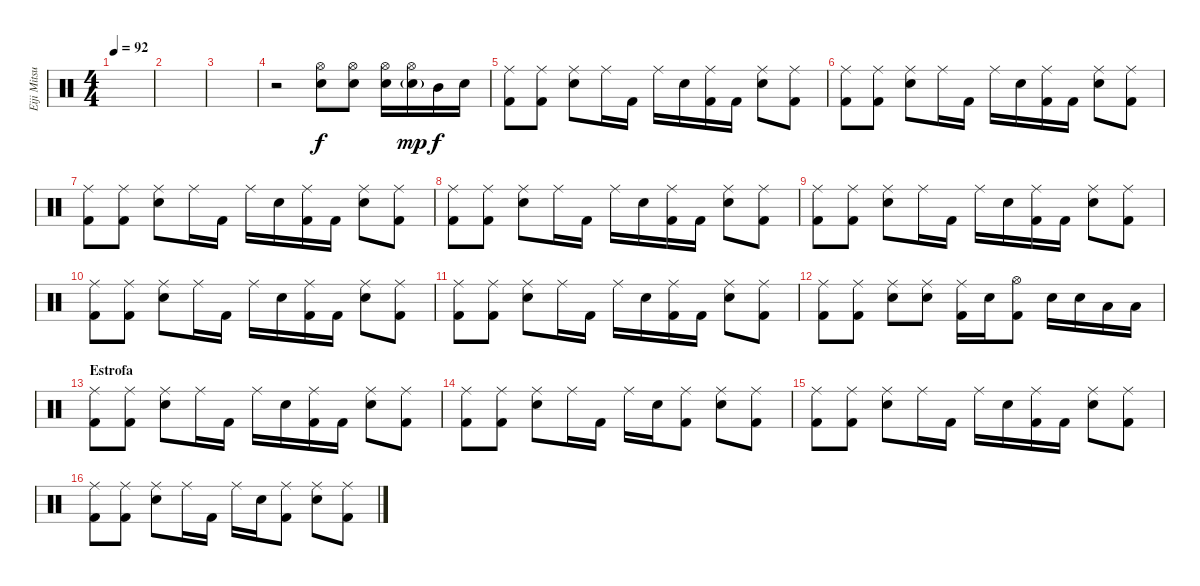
\track ("Eiji Mitsuzono " "Eiji Mitsu") {instrument percussion}
\staff {score}
\articulation defaults
\ts (4 4)
\tempo 92
\clef neutral
\ks c
|
|
|
r.2 ("Hi-Hat (open)" "Snare (hit) 2").8 ("Hi-Hat (open)" "Snare (hit) 2").8 ("Hi-Hat (open)" "Snare (hit) 2").16 ("Hi-Hat (open)" "Snare (hit) 2"{g}).16{dy mp} "Mid Tom (hit)".16{dy f} "Snare (hit) 2".16 |
("Ride (middle)" "Kick (hit) 2").8 ("Ride (middle)" "Kick (hit) 2").8 ("Ride (middle)" "Snare (hit) 2").8 "Ride (middle)".16 "Kick (hit) 2".16 "Ride (middle)".16 "Snare (hit) 2".16 ("Ride (middle)" "Kick (hit) 2").16 "Kick (hit) 2".16 ("Ride (middle)" "Snare (hit) 2").8 ("Ride (middle)" "Kick (hit) 2").8 |
("Ride (middle)" "Kick (hit) 2").8 ("Ride (middle)" "Kick (hit) 2").8 ("Ride (middle)" "Snare (hit) 2").8 "Ride (middle)".16 "Kick (hit) 2".16 "Ride (middle)".16 "Snare (hit) 2".16 ("Ride (middle)" "Kick (hit) 2").16 "Kick (hit) 2".16 ("Ride (middle)" "Snare (hit) 2").8 ("Ride (middle)" "Kick (hit) 2").8 |
("Ride (middle)" "Kick (hit) 2").8 ("Ride (middle)" "Kick (hit) 2").8 ("Ride (middle)" "Snare (hit) 2").8 "Ride (middle)".16 "Kick (hit) 2".16 "Ride (middle)".16 "Snare (hit) 2".16 ("Ride (middle)" "Kick (hit) 2").16 "Kick (hit) 2".16 ("Ride (middle)" "Snare (hit) 2").8 ("Ride (middle)" "Kick (hit) 2").8 |
("Ride (middle)" "Kick (hit) 2").8 ("Ride (middle)" "Kick (hit) 2").8 ("Ride (middle)" "Snare (hit) 2").8 "Ride (middle)".16 "Kick (hit) 2".16 "Ride (middle)".16 "Snare (hit) 2".16 ("Ride (middle)" "Kick (hit) 2").16 "Kick (hit) 2".16 ("Ride (middle)" "Snare (hit) 2").8 ("Ride (middle)" "Kick (hit) 2").8 |
("Ride (middle)" "Kick (hit) 2").8 ("Ride (middle)" "Kick (hit) 2").8 ("Ride (middle)" "Snare (hit) 2").8 "Ride (middle)".16 "Kick (hit) 2".16 "Ride (middle)".16 "Snare (hit) 2".16 ("Ride (middle)" "Kick (hit) 2").16 "Kick (hit) 2".16 ("Ride (middle)" "Snare (hit) 2").8 ("Ride (middle)" "Kick (hit) 2").8 |
("Ride (middle)" "Kick (hit) 2").8 ("Ride (middle)" "Kick (hit) 2").8 ("Ride (middle)" "Snare (hit) 2").8 "Ride (middle)".16 "Kick (hit) 2".16 "Ride (middle)".16 "Snare (hit) 2".16 ("Ride (middle)" "Kick (hit) 2").16 "Kick (hit) 2".16 ("Ride (middle)" "Snare (hit) 2").8 ("Ride (middle)" "Kick (hit) 2").8 |
("Ride (middle)" "Kick (hit) 2").8 ("Ride (middle)" "Kick (hit) 2").8 ("Ride (middle)" "Snare (hit) 2").8 "Ride (middle)".16 "Kick (hit) 2".16 "Ride (middle)".16 "Snare (hit) 2".16 ("Ride (middle)" "Kick (hit) 2").16 "Kick (hit) 2".16 ("Ride (middle)" "Snare (hit) 2").8 ("Ride (middle)" "Kick (hit) 2").8 |
("Ride (middle)" "Kick (hit) 2").8 ("Ride (middle)" "Kick (hit) 2").8 ("Ride (middle)" "Snare (hit) 2").8 ("Ride (middle)" "Snare (hit) 2").8 ("Ride (middle)" "Kick (hit) 2").16 "Snare (hit) 2".16 ("Hi-Hat (open)" "Kick (hit) 2").8 "Snare (hit) 2".16 "Snare (hit) 2".16 "Low Tom (hit)".16 "Low Tom (hit)".16 |
\section ("" "Estrofa")
("Ride (middle)" "Kick (hit) 2").8 ("Ride (middle)" "Kick (hit) 2").8 ("Ride (middle)" "Snare (hit) 2").8 "Ride (middle)".16 "Kick (hit) 2".16 "Ride (middle)".16 "Snare (hit) 2".16 ("Ride (middle)" "Kick (hit) 2").16 "Kick (hit) 2".16 ("Ride (middle)" "Snare (hit) 2").8 ("Ride (middle)" "Kick (hit) 2").8 |
("Ride (middle)" "Kick (hit) 2").8 ("Ride (middle)" "Kick (hit) 2").8 ("Ride (middle)" "Snare (hit) 2").8 "Ride (middle)".16 "Kick (hit) 2".16 "Ride (middle)".16 "Snare (hit) 2".16 ("Ride (middle)" "Kick (hit) 2").8 ("Ride (middle)" "Snare (hit) 2").8 ("Ride (middle)" "Kick (hit) 2").8 |
("Ride (middle)" "Kick (hit) 2").8 ("Ride (middle)" "Kick (hit) 2").8 ("Ride (middle)" "Snare (hit) 2").8 "Ride (middle)".16 "Kick (hit) 2".16 "Ride (middle)".16 "Snare (hit) 2".16 ("Ride (middle)" "Kick (hit) 2").16 "Kick (hit) 2".16 ("Ride (middle)" "Snare (hit) 2").8 ("Ride (middle)" "Kick (hit) 2").8 |
("Ride (middle)" "Kick (hit) 2").8 ("Ride (middle)" "Kick (hit) 2").8 ("Ride (middle)" "Snare (hit) 2").8 "Ride (middle)".16 "Kick (hit) 2".16 "Ride (middle)".16 "Snare (hit) 2".16 ("Ride (middle)" "Kick (hit) 2").8 ("Ride (middle)" "Snare (hit) 2").8 ("Ride (middle)" "Kick (hit) 2").8
